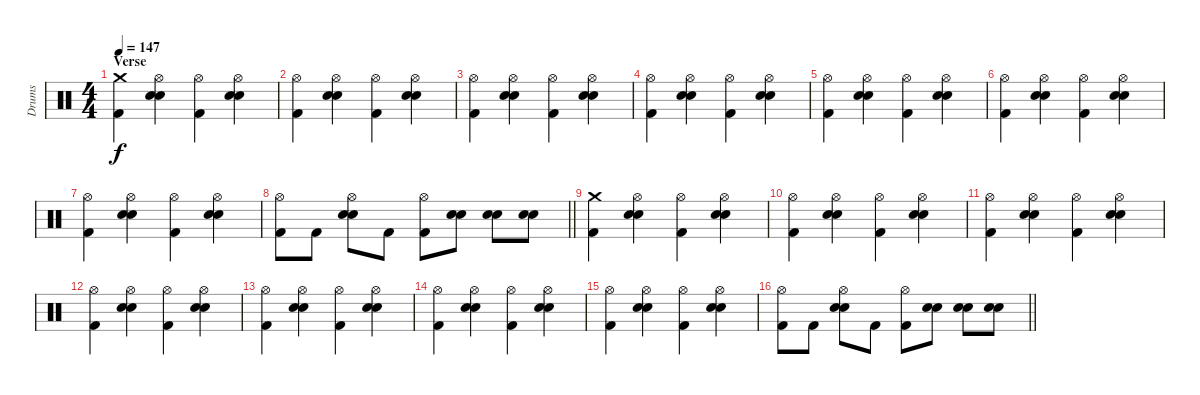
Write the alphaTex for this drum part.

\track ("Drums" "Drums") {instrument percussion}
\staff {score}
\articulation defaults
\ts (4 4)
\section ("" "Verse")
\tempo 147
\clef neutral
\ks c
("Crash medium (hit)" "Kick (hit) 2").4{dy f} ("Hi-Hat (open)" "Electric Snare (hit)" "Snare (hit) 2").4 ("Hi-Hat (open)" "Kick (hit) 2").4 ("Hi-Hat (open)" "Electric Snare (hit)" "Snare (hit) 2").4 |
("Hi-Hat (open)" "Kick (hit) 2").4 ("Hi-Hat (open)" "Electric Snare (hit)" "Snare (hit) 2").4 ("Hi-Hat (open)" "Kick (hit) 2").4 ("Hi-Hat (open)" "Electric Snare (hit)" "Snare (hit) 2").4 |
("Hi-Hat (open)" "Kick (hit) 2").4 ("Hi-Hat (open)" "Electric Snare (hit)" "Snare (hit) 2").4 ("Hi-Hat (open)" "Kick (hit) 2").4 ("Hi-Hat (open)" "Electric Snare (hit)" "Snare (hit) 2").4 |
("Hi-Hat (open)" "Kick (hit) 2").4 ("Hi-Hat (open)" "Electric Snare (hit)" "Snare (hit) 2").4 ("Hi-Hat (open)" "Kick (hit) 2").4 ("Hi-Hat (open)" "Electric Snare (hit)" "Snare (hit) 2").4 |
("Hi-Hat (open)" "Kick (hit) 2").4 ("Hi-Hat (open)" "Electric Snare (hit)" "Snare (hit) 2").4 ("Hi-Hat (open)" "Kick (hit) 2").4 ("Hi-Hat (open)" "Electric Snare (hit)" "Snare (hit) 2").4 |
("Hi-Hat (open)" "Kick (hit) 2").4 ("Hi-Hat (open)" "Electric Snare (hit)" "Snare (hit) 2").4 ("Hi-Hat (open)" "Kick (hit) 2").4 ("Hi-Hat (open)" "Electric Snare (hit)" "Snare (hit) 2").4 |
("Hi-Hat (open)" "Kick (hit) 2").4 ("Hi-Hat (open)" "Electric Snare (hit)" "Snare (hit) 2").4 ("Hi-Hat (open)" "Kick (hit) 2").4 ("Hi-Hat (open)" "Electric Snare (hit)" "Snare (hit) 2").4 |
\barLineRight lightlight
("Hi-Hat (open)" "Kick (hit) 2").8 "Kick (hit) 2".8 ("Hi-Hat (open)" "Electric Snare (hit)" "Snare (hit) 2").8 "Kick (hit) 2".8 ("Hi-Hat (open)" "Kick (hit) 2").8 ("Electric Snare (hit)" "Snare (hit) 2").8 ("Electric Snare (hit)" "Snare (hit) 2").8 ("Electric Snare (hit)" "Snare (hit) 2").8 |
\section ("" "")
("Crash medium (hit)" "Kick (hit) 2").4 ("Hi-Hat (open)" "Electric Snare (hit)" "Snare (hit) 2").4 ("Hi-Hat (open)" "Kick (hit) 2").4 ("Hi-Hat (open)" "Electric Snare (hit)" "Snare (hit) 2").4 |
("Hi-Hat (open)" "Kick (hit) 2").4 ("Hi-Hat (open)" "Electric Snare (hit)" "Snare (hit) 2").4 ("Hi-Hat (open)" "Kick (hit) 2").4 ("Hi-Hat (open)" "Electric Snare (hit)" "Snare (hit) 2").4 |
("Hi-Hat (open)" "Kick (hit) 2").4 ("Hi-Hat (open)" "Electric Snare (hit)" "Snare (hit) 2").4 ("Hi-Hat (open)" "Kick (hit) 2").4 ("Hi-Hat (open)" "Electric Snare (hit)" "Snare (hit) 2").4 |
("Hi-Hat (open)" "Kick (hit) 2").4 ("Hi-Hat (open)" "Electric Snare (hit)" "Snare (hit) 2").4 ("Hi-Hat (open)" "Kick (hit) 2").4 ("Hi-Hat (open)" "Electric Snare (hit)" "Snare (hit) 2").4 |
("Hi-Hat (open)" "Kick (hit) 2").4 ("Hi-Hat (open)" "Electric Snare (hit)" "Snare (hit) 2").4 ("Hi-Hat (open)" "Kick (hit) 2").4 ("Hi-Hat (open)" "Electric Snare (hit)" "Snare (hit) 2").4 |
("Hi-Hat (open)" "Kick (hit) 2").4 ("Hi-Hat (open)" "Electric Snare (hit)" "Snare (hit) 2").4 ("Hi-Hat (open)" "Kick (hit) 2").4 ("Hi-Hat (open)" "Electric Snare (hit)" "Snare (hit) 2").4 |
("Hi-Hat (open)" "Kick (hit) 2").4 ("Hi-Hat (open)" "Electric Snare (hit)" "Snare (hit) 2").4 ("Hi-Hat (open)" "Kick (hit) 2").4 ("Hi-Hat (open)" "Electric Snare (hit)" "Snare (hit) 2").4 |
\barLineRight lightlight
("Hi-Hat (open)" "Kick (hit) 2").8 "Kick (hit) 2".8 ("Hi-Hat (open)" "Electric Snare (hit)" "Snare (hit) 2").8 "Kick (hit) 2".8 ("Hi-Hat (open)" "Kick (hit) 2").8 ("Electric Snare (hit)" "Snare (hit) 2").8 ("Electric Snare (hit)" "Snare (hit) 2").8 ("Electric Snare (hit)" "Snare (hit) 2").8
